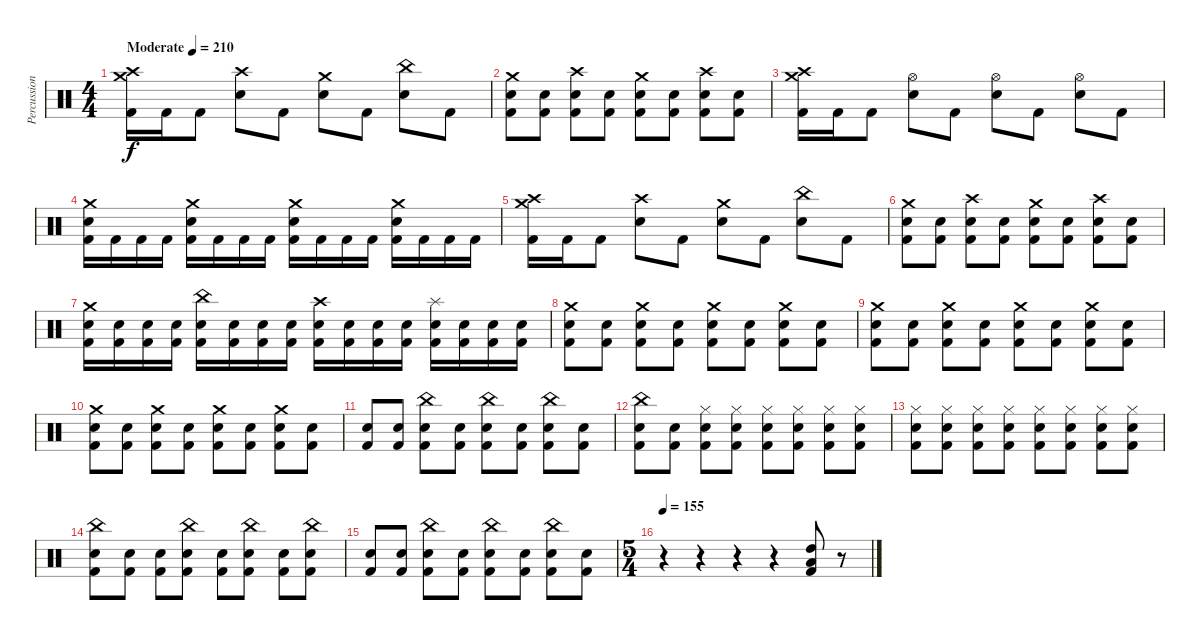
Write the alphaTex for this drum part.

\track ("Percussion" "Percussion") {instrument percussion}
\staff {score}
\articulation defaults
\ts (4 4)
\tempo (210 "Moderate")
\clef neutral
\ks c
("Crash medium (hit)" "Crash high (hit)" "Kick (hit) 2").16{dy f} "Kick (hit) 2".16 "Kick (hit) 2".8 ("Crash high (hit)" "Snare (hit) 2").8 "Kick (hit) 2".8 ("Crash medium (hit)" "Snare (hit) 2").8 "Kick (hit) 2".8 ("China (hit)" "Snare (hit) 2").8 "Kick (hit) 2".8 |
("Crash medium (hit)" "Snare (hit) 2" "Kick (hit) 2").8 ("Snare (hit) 2" "Kick (hit) 2").8 ("Crash high (hit)" "Snare (hit) 2" "Kick (hit) 2").8 ("Snare (hit) 2" "Kick (hit) 2").8 ("Crash medium (hit)" "Snare (hit) 2" "Kick (hit) 2").8 ("Snare (hit) 2" "Kick (hit) 2").8 ("Crash high (hit)" "Snare (hit) 2" "Kick (hit) 2").8 ("Snare (hit) 2" "Kick (hit) 2").8 |
("Crash medium (hit)" "Crash high (hit)" "Kick (hit) 2").16 "Kick (hit) 2".16 "Kick (hit) 2".8 ("Hi-Hat (open)" "Snare (hit) 2").8 "Kick (hit) 2".8 ("Hi-Hat (open)" "Snare (hit) 2").8 "Kick (hit) 2".8 ("Hi-Hat (open)" "Snare (hit) 2").8 "Kick (hit) 2".8 |
("Crash medium (hit)" "Snare (hit) 2" "Kick (hit) 2").16 "Kick (hit) 2".16 "Kick (hit) 2".16 "Kick (hit) 2".16 ("Crash medium (hit)" "Snare (hit) 2" "Kick (hit) 2").16 "Kick (hit) 2".16 "Kick (hit) 2".16 "Kick (hit) 2".16 ("Crash medium (hit)" "Snare (hit) 2" "Kick (hit) 2").16 "Kick (hit) 2".16 "Kick (hit) 2".16 "Kick (hit) 2".16 ("Crash medium (hit)" "Snare (hit) 2" "Kick (hit) 2").16 "Kick (hit) 2".16 "Kick (hit) 2".16 "Kick (hit) 2".16 |
("Crash medium (hit)" "Crash high (hit)" "Kick (hit) 2").16 "Kick (hit) 2".16 "Kick (hit) 2".8 ("Crash high (hit)" "Snare (hit) 2").8 "Kick (hit) 2".8 ("Crash medium (hit)" "Snare (hit) 2").8 "Kick (hit) 2".8 ("China (hit)" "Snare (hit) 2").8 "Kick (hit) 2".8 |
("Crash medium (hit)" "Snare (hit) 2" "Kick (hit) 2").8 ("Snare (hit) 2" "Kick (hit) 2").8 ("Crash high (hit)" "Snare (hit) 2" "Kick (hit) 2").8 ("Snare (hit) 2" "Kick (hit) 2").8 ("Crash medium (hit)" "Snare (hit) 2" "Kick (hit) 2").8 ("Snare (hit) 2" "Kick (hit) 2").8 ("Crash high (hit)" "Snare (hit) 2" "Kick (hit) 2").8 ("Snare (hit) 2" "Kick (hit) 2").8 |
("Crash medium (hit)" "Snare (hit) 2" "Kick (hit) 2").16 ("Snare (hit) 2" "Kick (hit) 2").16 ("Snare (hit) 2" "Kick (hit) 2").16 ("Snare (hit) 2" "Kick (hit) 2").16 ("China (hit)" "Snare (hit) 2" "Kick (hit) 2").16 ("Snare (hit) 2" "Kick (hit) 2").16 ("Snare (hit) 2" "Kick (hit) 2").16 ("Snare (hit) 2" "Kick (hit) 2").16 ("Crash high (hit)" "Snare (hit) 2" "Kick (hit) 2").16 ("Snare (hit) 2" "Kick (hit) 2").16 ("Snare (hit) 2" "Kick (hit) 2").16 ("Snare (hit) 2" "Kick (hit) 2").16 ("Splash (hit)" "Snare (hit) 2" "Kick (hit) 2").16 ("Snare (hit) 2" "Kick (hit) 2").16 ("Snare (hit) 2" "Kick (hit) 2").16 ("Snare (hit) 2" "Kick (hit) 2").16 |
("Crash medium (hit)" "Snare (hit) 2" "Kick (hit) 2").8 ("Snare (hit) 2" "Kick (hit) 2").8 ("Crash medium (hit)" "Snare (hit) 2" "Kick (hit) 2").8 ("Snare (hit) 2" "Kick (hit) 2").8 ("Crash medium (hit)" "Snare (hit) 2" "Kick (hit) 2").8 ("Snare (hit) 2" "Kick (hit) 2").8 ("Crash medium (hit)" "Snare (hit) 2" "Kick (hit) 2").8 ("Snare (hit) 2" "Kick (hit) 2").8 |
("Crash medium (hit)" "Snare (hit) 2" "Kick (hit) 2").8 ("Snare (hit) 2" "Kick (hit) 2").8 ("Crash medium (hit)" "Snare (hit) 2" "Kick (hit) 2").8 ("Snare (hit) 2" "Kick (hit) 2").8 ("Crash medium (hit)" "Snare (hit) 2" "Kick (hit) 2").8 ("Snare (hit) 2" "Kick (hit) 2").8 ("Crash medium (hit)" "Snare (hit) 2" "Kick (hit) 2").8 ("Snare (hit) 2" "Kick (hit) 2").8 |
("Crash medium (hit)" "Snare (hit) 2" "Kick (hit) 2").8 ("Snare (hit) 2" "Kick (hit) 2").8 ("Crash medium (hit)" "Snare (hit) 2" "Kick (hit) 2").8 ("Snare (hit) 2" "Kick (hit) 2").8 ("Crash medium (hit)" "Snare (hit) 2" "Kick (hit) 2").8 ("Snare (hit) 2" "Kick (hit) 2").8 ("Crash medium (hit)" "Snare (hit) 2" "Kick (hit) 2").8 ("Snare (hit) 2" "Kick (hit) 2").8 |
("Snare (hit) 2" "Kick (hit) 2").8 ("Snare (hit) 2" "Kick (hit) 2").8 ("China (hit)" "Snare (hit) 2" "Kick (hit) 2").8 ("Snare (hit) 2" "Kick (hit) 2").8 ("China (hit)" "Snare (hit) 2" "Kick (hit) 2").8 ("Snare (hit) 2" "Kick (hit) 2").8 ("China (hit)" "Snare (hit) 2" "Kick (hit) 2").8 ("Snare (hit) 2" "Kick (hit) 2").8 |
("China (hit)" "Snare (hit) 2" "Kick (hit) 2").8 ("Snare (hit) 2" "Kick (hit) 2").8 ("Hi-Hat (closed)" "Snare (hit) 2" "Kick (hit) 2").8 ("Hi-Hat (closed)" "Snare (hit) 2" "Kick (hit) 2").8 ("Hi-Hat (closed)" "Snare (hit) 2" "Kick (hit) 2").8 ("Hi-Hat (closed)" "Snare (hit) 2" "Kick (hit) 2").8 ("Hi-Hat (closed)" "Snare (hit) 2" "Kick (hit) 2").8 ("Hi-Hat (closed)" "Snare (hit) 2" "Kick (hit) 2").8 |
("Hi-Hat (closed)" "Snare (hit) 2" "Kick (hit) 2").8 ("Hi-Hat (closed)" "Snare (hit) 2" "Kick (hit) 2").8 ("Hi-Hat (closed)" "Snare (hit) 2" "Kick (hit) 2").8 ("Hi-Hat (closed)" "Snare (hit) 2" "Kick (hit) 2").8 ("Hi-Hat (closed)" "Snare (hit) 2" "Kick (hit) 2").8 ("Hi-Hat (closed)" "Snare (hit) 2" "Kick (hit) 2").8 ("Hi-Hat (closed)" "Snare (hit) 2" "Kick (hit) 2").8 ("Hi-Hat (closed)" "Snare (hit) 2" "Kick (hit) 2").8 |
("China (hit)" "Snare (hit) 2" "Kick (hit) 2").8 ("Snare (hit) 2" "Kick (hit) 2").8 ("Snare (hit) 2" "Kick (hit) 2").8 ("China (hit)" "Snare (hit) 2" "Kick (hit) 2").8 ("Snare (hit) 2" "Kick (hit) 2").8 ("China (hit)" "Snare (hit) 2" "Kick (hit) 2").8 ("Snare (hit) 2" "Kick (hit) 2").8 ("China (hit)" "Snare (hit) 2" "Kick (hit) 2").8 |
("Snare (hit) 2" "Kick (hit) 2").8 ("Snare (hit) 2" "Kick (hit) 2").8 ("China (hit)" "Snare (hit) 2" "Kick (hit) 2").8 ("Snare (hit) 2" "Kick (hit) 2").8 ("China (hit)" "Snare (hit) 2" "Kick (hit) 2").8 ("Snare (hit) 2" "Kick (hit) 2").8 ("China (hit)" "Snare (hit) 2" "Kick (hit) 2").8 ("Snare (hit) 2" "Kick (hit) 2").8 |
\ts (5 4)
\tempo 155
r.4 r.4 r.4 r.4 ("High Tom (hit)" "Low Tom (hit)" "Kick (hit) 2").8 r.8
